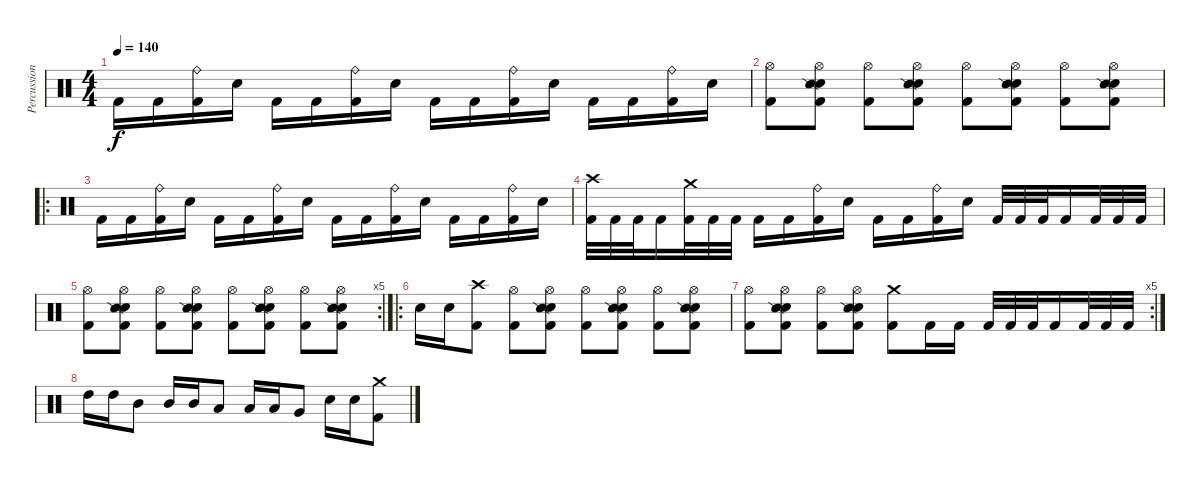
\track ("Percussion" "Percussion") {instrument percussion}
\staff {score}
\articulation defaults
\ts (4 4)
\tempo 140
\clef neutral
\ks c "Kick (hit) 2".16{dy f} "Kick (hit) 2".16
("Ride (bell)" "Kick (hit) 2").16 "Electric Snare (hit)".16 "Kick (hit) 2".16 "Kick (hit) 2".16 ("Ride (bell)" "Kick (hit) 2").16 "Electric Snare (hit)".16 "Kick (hit) 2".16 "Kick (hit) 2".16 ("Ride (bell)" "Kick (hit) 2").16 "Electric Snare (hit)".16 "Kick (hit) 2".16 "Kick (hit) 2".16 ("Ride (bell)" "Kick (hit) 2").16 "Electric Snare (hit)".16 |
("Hi-Hat (open)" "Kick (hit) 2").8 ("Hi-Hat (open)" "Electric Snare (hit)" "Snare (side stick) 2" "Kick (hit) 2").8 ("Hi-Hat (open)" "Kick (hit) 2").8 ("Hi-Hat (open)" "Electric Snare (hit)" "Snare (side stick) 2" "Kick (hit) 2").8 ("Hi-Hat (open)" "Kick (hit) 2").8 ("Hi-Hat (open)" "Electric Snare (hit)" "Snare (side stick) 2" "Kick (hit) 2").8 ("Hi-Hat (open)" "Kick (hit) 2").8 ("Hi-Hat (open)" "Electric Snare (hit)" "Snare (side stick) 2" "Kick (hit) 2").8 |
\ro "Kick (hit) 2".16 "Kick (hit) 2".16
("Ride (bell)" "Kick (hit) 2").16 "Electric Snare (hit)".16 "Kick (hit) 2".16 "Kick (hit) 2".16 ("Ride (bell)" "Kick (hit) 2").16 "Electric Snare (hit)".16 "Kick (hit) 2".16 "Kick (hit) 2".16 ("Ride (bell)" "Kick (hit) 2").16 "Electric Snare (hit)".16 "Kick (hit) 2".16 "Kick (hit) 2".16 ("Ride (bell)" "Kick (hit) 2").16 "Electric Snare (hit)".16 |
("Crash high (hit)" "Kick (hit) 2").32 "Kick (hit) 2".32 "Kick (hit) 2".32 "Kick (hit) 2".16 ("Crash medium (hit)" "Kick (hit) 2").32 "Kick (hit) 2".32 "Kick (hit) 2".32 "Kick (hit) 2".16 "Kick (hit) 2".16 ("Ride (bell)" "Kick (hit) 2").16 "Electric Snare (hit)".16 "Kick (hit) 2".16 "Kick (hit) 2".16 ("Ride (bell)" "Kick (hit) 2").16 "Electric Snare (hit)".16 "Kick (hit) 2".32 "Kick (hit) 2".32 "Kick (hit) 2".32 "Kick (hit) 2".16 "Kick (hit) 2".32 "Kick (hit) 2".32 "Kick (hit) 2".32 |
\rc 5
("Hi-Hat (open)" "Kick (hit) 2").8 ("Hi-Hat (open)" "Electric Snare (hit)" "Snare (side stick) 2" "Kick (hit) 2").8 ("Hi-Hat (open)" "Kick (hit) 2").8 ("Hi-Hat (open)" "Electric Snare (hit)" "Snare (side stick) 2" "Kick (hit) 2").8 ("Hi-Hat (open)" "Kick (hit) 2").8 ("Hi-Hat (open)" "Electric Snare (hit)" "Snare (side stick) 2" "Kick (hit) 2").8 ("Hi-Hat (open)" "Kick (hit) 2").8 ("Hi-Hat (open)" "Electric Snare (hit)" "Snare (side stick) 2" "Kick (hit) 2").8 |
\ro "Electric Snare (hit)".16 "Electric Snare (hit)".16
("Crash high (hit)" "Kick (hit) 2").8 ("Hi-Hat (open)" "Kick (hit) 2").8 ("Hi-Hat (open)" "Electric Snare (hit)" "Snare (side stick) 2" "Kick (hit) 2").8 ("Hi-Hat (open)" "Kick (hit) 2").8 ("Hi-Hat (open)" "Electric Snare (hit)" "Snare (side stick) 2" "Kick (hit) 2").8 ("Hi-Hat (open)" "Kick (hit) 2").8 ("Hi-Hat (open)" "Electric Snare (hit)" "Snare (side stick) 2" "Kick (hit) 2").8 |
\rc 5
("Hi-Hat (open)" "Kick (hit) 2").8 ("Hi-Hat (open)" "Electric Snare (hit)" "Snare (side stick) 2" "Kick (hit) 2").8 ("Hi-Hat (open)" "Kick (hit) 2").8 ("Hi-Hat (open)" "Electric Snare (hit)" "Snare (side stick) 2" "Kick (hit) 2").8 ("Crash medium (hit)" "Kick (hit) 2").8 "Kick (hit) 2".16 "Kick (hit) 2".16 "Kick (hit) 2".32 "Kick (hit) 2".32 "Kick (hit) 2".32 "Kick (hit) 2".16 "Kick (hit) 2".32 "Kick (hit) 2".32 "Kick (hit) 2".32 |
"High Tom (hit)".16 "High Tom (hit)".16 "Mid Tom (hit)".8 "Mid Tom (hit)".16 "Mid Tom (hit)".16 "Low Tom (hit)".8 "Low Tom (hit)".16 "Low Tom (hit)".16 "Very Low Tom (hit)".8 "Electric Snare (hit)".16 "Electric Snare (hit)".16 ("Crash medium (hit)" "Kick (hit) 2").8
